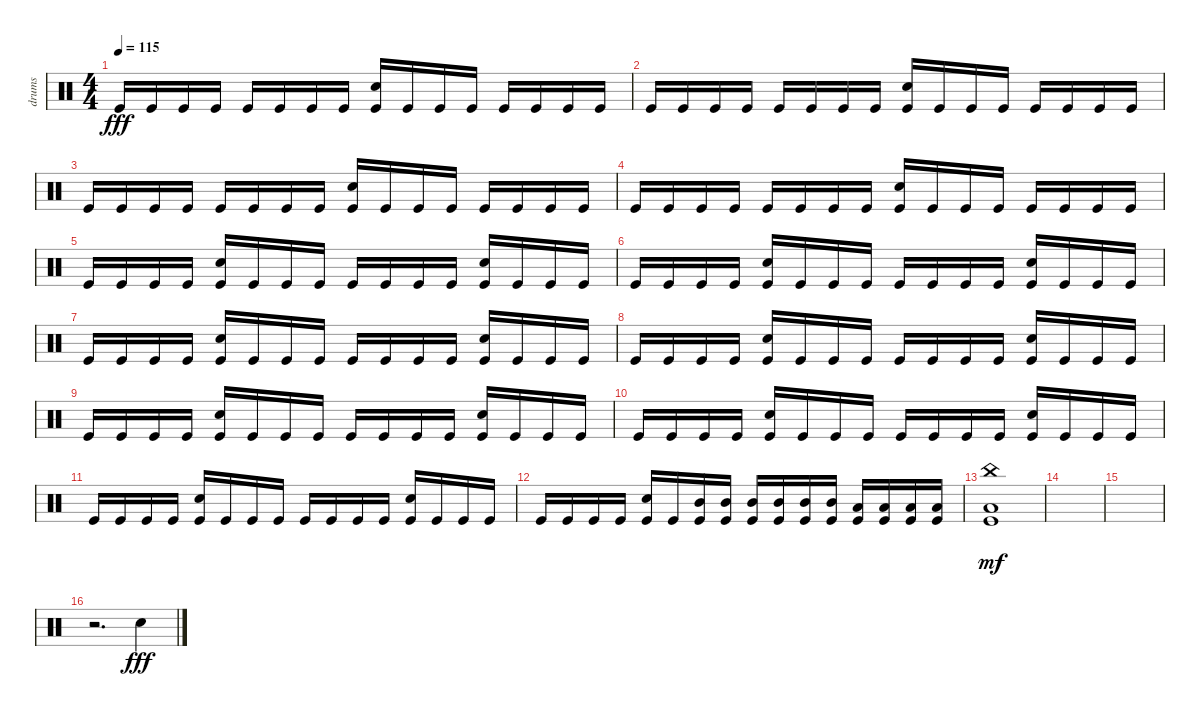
\track ("drums" "drums") {instrument percussion}
\staff {score}
\articulation defaults
\ts (4 4)
\tempo 115
\clef neutral
\ks c "Kick (hit)".16{dy fff} "Kick (hit)".16 "Kick (hit)".16 "Kick (hit)".16 "Kick (hit)".16 "Kick (hit)".16 "Kick (hit)".16 "Kick (hit)".16
("Electric Snare (hit)" "Kick (hit)").16 "Kick (hit)".16 "Kick (hit)".16 "Kick (hit)".16 "Kick (hit)".16 "Kick (hit)".16 "Kick (hit)".16 "Kick (hit)".16 |
"Kick (hit)".16 "Kick (hit)".16 "Kick (hit)".16 "Kick (hit)".16 "Kick (hit)".16 "Kick (hit)".16 "Kick (hit)".16 "Kick (hit)".16 ("Electric Snare (hit)" "Kick (hit)").16 "Kick (hit)".16 "Kick (hit)".16 "Kick (hit)".16 "Kick (hit)".16 "Kick (hit)".16 "Kick (hit)".16 "Kick (hit)".16 |
"Kick (hit)".16 "Kick (hit)".16 "Kick (hit)".16 "Kick (hit)".16 "Kick (hit)".16 "Kick (hit)".16 "Kick (hit)".16 "Kick (hit)".16 ("Electric Snare (hit)" "Kick (hit)").16 "Kick (hit)".16 "Kick (hit)".16 "Kick (hit)".16 "Kick (hit)".16 "Kick (hit)".16 "Kick (hit)".16 "Kick (hit)".16 |
"Kick (hit)".16 "Kick (hit)".16 "Kick (hit)".16 "Kick (hit)".16 "Kick (hit)".16 "Kick (hit)".16 "Kick (hit)".16 "Kick (hit)".16 ("Electric Snare (hit)" "Kick (hit)").16 "Kick (hit)".16 "Kick (hit)".16 "Kick (hit)".16 "Kick (hit)".16 "Kick (hit)".16 "Kick (hit)".16 "Kick (hit)".16 |
"Kick (hit)".16 "Kick (hit)".16 "Kick (hit)".16 "Kick (hit)".16 ("Electric Snare (hit)" "Kick (hit)").16 "Kick (hit)".16 "Kick (hit)".16 "Kick (hit)".16 "Kick (hit)".16 "Kick (hit)".16 "Kick (hit)".16 "Kick (hit)".16 ("Electric Snare (hit)" "Kick (hit)").16 "Kick (hit)".16 "Kick (hit)".16 "Kick (hit)".16 |
"Kick (hit)".16 "Kick (hit)".16 "Kick (hit)".16 "Kick (hit)".16 ("Electric Snare (hit)" "Kick (hit)").16 "Kick (hit)".16 "Kick (hit)".16 "Kick (hit)".16 "Kick (hit)".16 "Kick (hit)".16 "Kick (hit)".16 "Kick (hit)".16 ("Electric Snare (hit)" "Kick (hit)").16 "Kick (hit)".16 "Kick (hit)".16 "Kick (hit)".16 |
"Kick (hit)".16 "Kick (hit)".16 "Kick (hit)".16 "Kick (hit)".16 ("Electric Snare (hit)" "Kick (hit)").16 "Kick (hit)".16 "Kick (hit)".16 "Kick (hit)".16 "Kick (hit)".16 "Kick (hit)".16 "Kick (hit)".16 "Kick (hit)".16 ("Electric Snare (hit)" "Kick (hit)").16 "Kick (hit)".16 "Kick (hit)".16 "Kick (hit)".16 |
"Kick (hit)".16 "Kick (hit)".16 "Kick (hit)".16 "Kick (hit)".16 ("Electric Snare (hit)" "Kick (hit)").16 "Kick (hit)".16 "Kick (hit)".16 "Kick (hit)".16 "Kick (hit)".16 "Kick (hit)".16 "Kick (hit)".16 "Kick (hit)".16 ("Electric Snare (hit)" "Kick (hit)").16 "Kick (hit)".16 "Kick (hit)".16 "Kick (hit)".16 |
"Kick (hit)".16 "Kick (hit)".16 "Kick (hit)".16 "Kick (hit)".16 ("Electric Snare (hit)" "Kick (hit)").16 "Kick (hit)".16 "Kick (hit)".16 "Kick (hit)".16 "Kick (hit)".16 "Kick (hit)".16 "Kick (hit)".16 "Kick (hit)".16 ("Electric Snare (hit)" "Kick (hit)").16 "Kick (hit)".16 "Kick (hit)".16 "Kick (hit)".16 |
"Kick (hit)".16 "Kick (hit)".16 "Kick (hit)".16 "Kick (hit)".16 ("Electric Snare (hit)" "Kick (hit)").16 "Kick (hit)".16 "Kick (hit)".16 "Kick (hit)".16 "Kick (hit)".16 "Kick (hit)".16 "Kick (hit)".16 "Kick (hit)".16 ("Electric Snare (hit)" "Kick (hit)").16 "Kick (hit)".16 "Kick (hit)".16 "Kick (hit)".16 |
"Kick (hit)".16 "Kick (hit)".16 "Kick (hit)".16 "Kick (hit)".16 ("Electric Snare (hit)" "Kick (hit)").16 "Kick (hit)".16 "Kick (hit)".16 "Kick (hit)".16 "Kick (hit)".16 "Kick (hit)".16 "Kick (hit)".16 "Kick (hit)".16 ("Electric Snare (hit)" "Kick (hit)").16 "Kick (hit)".16 "Kick (hit)".16 "Kick (hit)".16 |
"Kick (hit)".16 "Kick (hit)".16 "Kick (hit)".16 "Kick (hit)".16 ("Electric Snare (hit)" "Kick (hit)").16 "Kick (hit)".16 ("Mid Tom (hit)" "Kick (hit)").16 ("Mid Tom (hit)" "Kick (hit)").16 ("Mid Tom (hit)" "Kick (hit)").16 ("Mid Tom (hit)" "Kick (hit)").16 ("Mid Tom (hit)" "Kick (hit)").16 ("Mid Tom (hit)" "Kick (hit)").16 ("Low Tom (hit)" "Kick (hit)").16 ("Low Tom (hit)" "Kick (hit)").16 ("Low Tom (hit)" "Kick (hit)").16 ("Low Tom (hit)" "Kick (hit)").16 |
("Low Floor Tom (hit)" "Kick (hit)" "China (hit)").1{dy mf} |
|
|
r.2{d} "Electric Snare (hit)".4{dy fff}
